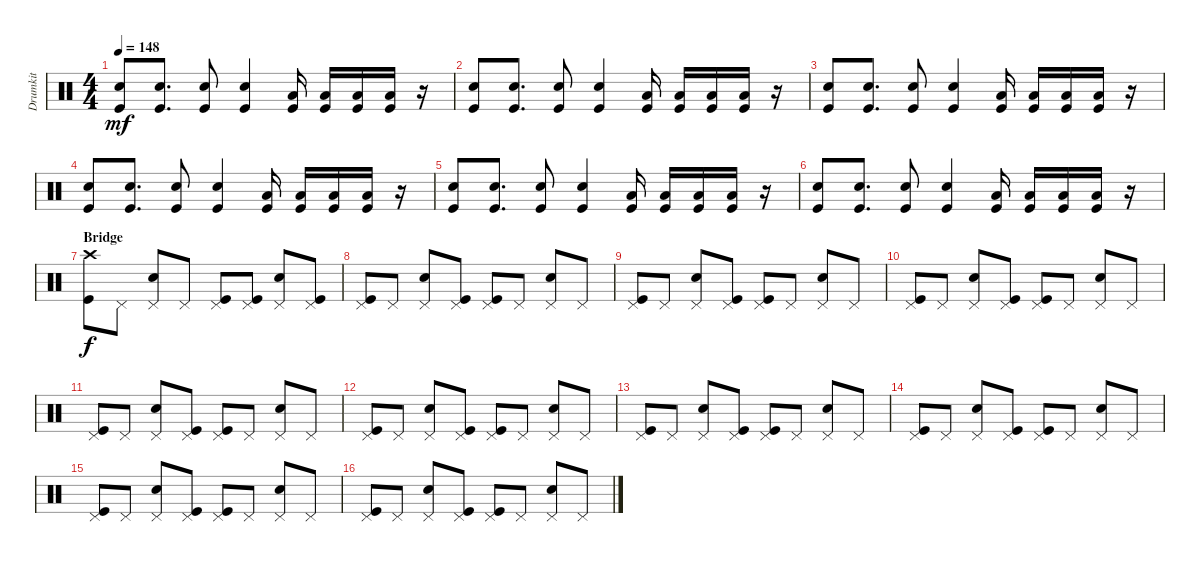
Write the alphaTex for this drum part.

\track ("Drumkit" "Drumkit") {instrument percussion}
\staff {score}
\articulation defaults
\ts (4 4)
\tempo 148
\clef neutral
\ks c
("Snare (hit) 2" "Kick (hit)").8{dy mf} ("Snare (hit) 2" "Kick (hit)").8{d} ("Snare (hit) 2" "Kick (hit)").8 ("Snare (hit) 2" "Kick (hit)").4 ("Kick (hit)" "Low Tom (hit)").16 ("Kick (hit)" "Low Tom (hit)").16 ("Kick (hit)" "Low Tom (hit)").16 ("Kick (hit)" "Low Tom (hit)").16 r.16 |
("Snare (hit) 2" "Kick (hit)").8 ("Snare (hit) 2" "Kick (hit)").8{d} ("Snare (hit) 2" "Kick (hit)").8 ("Snare (hit) 2" "Kick (hit)").4 ("Kick (hit)" "Low Tom (hit)").16 ("Kick (hit)" "Low Tom (hit)").16 ("Kick (hit)" "Low Tom (hit)").16 ("Kick (hit)" "Low Tom (hit)").16 r.16 |
("Snare (hit) 2" "Kick (hit)").8 ("Snare (hit) 2" "Kick (hit)").8{d} ("Snare (hit) 2" "Kick (hit)").8 ("Snare (hit) 2" "Kick (hit)").4 ("Kick (hit)" "Low Tom (hit)").16 ("Kick (hit)" "Low Tom (hit)").16 ("Kick (hit)" "Low Tom (hit)").16 ("Kick (hit)" "Low Tom (hit)").16 r.16 |
("Snare (hit) 2" "Kick (hit)").8 ("Snare (hit) 2" "Kick (hit)").8{d} ("Snare (hit) 2" "Kick (hit)").8 ("Snare (hit) 2" "Kick (hit)").4 ("Kick (hit)" "Low Tom (hit)").16 ("Kick (hit)" "Low Tom (hit)").16 ("Kick (hit)" "Low Tom (hit)").16 ("Kick (hit)" "Low Tom (hit)").16 r.16 |
("Snare (hit) 2" "Kick (hit)").8 ("Snare (hit) 2" "Kick (hit)").8{d} ("Snare (hit) 2" "Kick (hit)").8 ("Snare (hit) 2" "Kick (hit)").4 ("Kick (hit)" "Low Tom (hit)").16 ("Kick (hit)" "Low Tom (hit)").16 ("Kick (hit)" "Low Tom (hit)").16 ("Kick (hit)" "Low Tom (hit)").16 r.16 |
("Snare (hit) 2" "Kick (hit)").8 ("Snare (hit) 2" "Kick (hit)").8{d} ("Snare (hit) 2" "Kick (hit)").8 ("Snare (hit) 2" "Kick (hit)").4 ("Kick (hit)" "Low Tom (hit)").16 ("Kick (hit)" "Low Tom (hit)").16 ("Kick (hit)" "Low Tom (hit)").16 ("Kick (hit)" "Low Tom (hit)").16 r.16 |
\section ("" "Bridge")
("Crash high (hit)" "Kick (hit)").8{dy f} "Pedal Hi-Hat (hit)".8 ("Pedal Hi-Hat (hit)" "Snare (hit) 2").8 "Pedal Hi-Hat (hit)".8 ("Pedal Hi-Hat (hit)" "Kick (hit)").8 ("Pedal Hi-Hat (hit)" "Kick (hit)").8 ("Pedal Hi-Hat (hit)" "Snare (hit) 2").8 ("Pedal Hi-Hat (hit)" "Kick (hit)").8 |
("Pedal Hi-Hat (hit)" "Kick (hit)").8 "Pedal Hi-Hat (hit)".8 ("Pedal Hi-Hat (hit)" "Snare (hit) 2").8 ("Pedal Hi-Hat (hit)" "Kick (hit)").8 ("Pedal Hi-Hat (hit)" "Kick (hit)").8 "Pedal Hi-Hat (hit)".8 ("Pedal Hi-Hat (hit)" "Snare (hit) 2").8 "Pedal Hi-Hat (hit)".8 |
("Pedal Hi-Hat (hit)" "Kick (hit)").8 "Pedal Hi-Hat (hit)".8 ("Pedal Hi-Hat (hit)" "Snare (hit) 2").8 ("Pedal Hi-Hat (hit)" "Kick (hit)").8 ("Pedal Hi-Hat (hit)" "Kick (hit)").8 "Pedal Hi-Hat (hit)".8 ("Pedal Hi-Hat (hit)" "Snare (hit) 2").8 "Pedal Hi-Hat (hit)".8 |
("Pedal Hi-Hat (hit)" "Kick (hit)").8 "Pedal Hi-Hat (hit)".8 ("Pedal Hi-Hat (hit)" "Snare (hit) 2").8 ("Pedal Hi-Hat (hit)" "Kick (hit)").8 ("Pedal Hi-Hat (hit)" "Kick (hit)").8 "Pedal Hi-Hat (hit)".8 ("Pedal Hi-Hat (hit)" "Snare (hit) 2").8 "Pedal Hi-Hat (hit)".8 |
("Pedal Hi-Hat (hit)" "Kick (hit)").8 "Pedal Hi-Hat (hit)".8 ("Pedal Hi-Hat (hit)" "Snare (hit) 2").8 ("Pedal Hi-Hat (hit)" "Kick (hit)").8 ("Pedal Hi-Hat (hit)" "Kick (hit)").8 "Pedal Hi-Hat (hit)".8 ("Pedal Hi-Hat (hit)" "Snare (hit) 2").8 "Pedal Hi-Hat (hit)".8 |
("Pedal Hi-Hat (hit)" "Kick (hit)").8 "Pedal Hi-Hat (hit)".8 ("Pedal Hi-Hat (hit)" "Snare (hit) 2").8 ("Pedal Hi-Hat (hit)" "Kick (hit)").8 ("Pedal Hi-Hat (hit)" "Kick (hit)").8 "Pedal Hi-Hat (hit)".8 ("Pedal Hi-Hat (hit)" "Snare (hit) 2").8 "Pedal Hi-Hat (hit)".8 |
("Pedal Hi-Hat (hit)" "Kick (hit)").8 "Pedal Hi-Hat (hit)".8 ("Pedal Hi-Hat (hit)" "Snare (hit) 2").8 ("Pedal Hi-Hat (hit)" "Kick (hit)").8 ("Pedal Hi-Hat (hit)" "Kick (hit)").8 "Pedal Hi-Hat (hit)".8 ("Pedal Hi-Hat (hit)" "Snare (hit) 2").8 "Pedal Hi-Hat (hit)".8 |
("Pedal Hi-Hat (hit)" "Kick (hit)").8 "Pedal Hi-Hat (hit)".8 ("Pedal Hi-Hat (hit)" "Snare (hit) 2").8 ("Pedal Hi-Hat (hit)" "Kick (hit)").8 ("Pedal Hi-Hat (hit)" "Kick (hit)").8 "Pedal Hi-Hat (hit)".8 ("Pedal Hi-Hat (hit)" "Snare (hit) 2").8 "Pedal Hi-Hat (hit)".8 |
("Pedal Hi-Hat (hit)" "Kick (hit)").8 "Pedal Hi-Hat (hit)".8 ("Pedal Hi-Hat (hit)" "Snare (hit) 2").8 ("Pedal Hi-Hat (hit)" "Kick (hit)").8 ("Pedal Hi-Hat (hit)" "Kick (hit)").8 "Pedal Hi-Hat (hit)".8 ("Pedal Hi-Hat (hit)" "Snare (hit) 2").8 "Pedal Hi-Hat (hit)".8 |
("Pedal Hi-Hat (hit)" "Kick (hit)").8 "Pedal Hi-Hat (hit)".8 ("Pedal Hi-Hat (hit)" "Snare (hit) 2").8 ("Pedal Hi-Hat (hit)" "Kick (hit)").8 ("Pedal Hi-Hat (hit)" "Kick (hit)").8 "Pedal Hi-Hat (hit)".8 ("Pedal Hi-Hat (hit)" "Snare (hit) 2").8 "Pedal Hi-Hat (hit)".8
